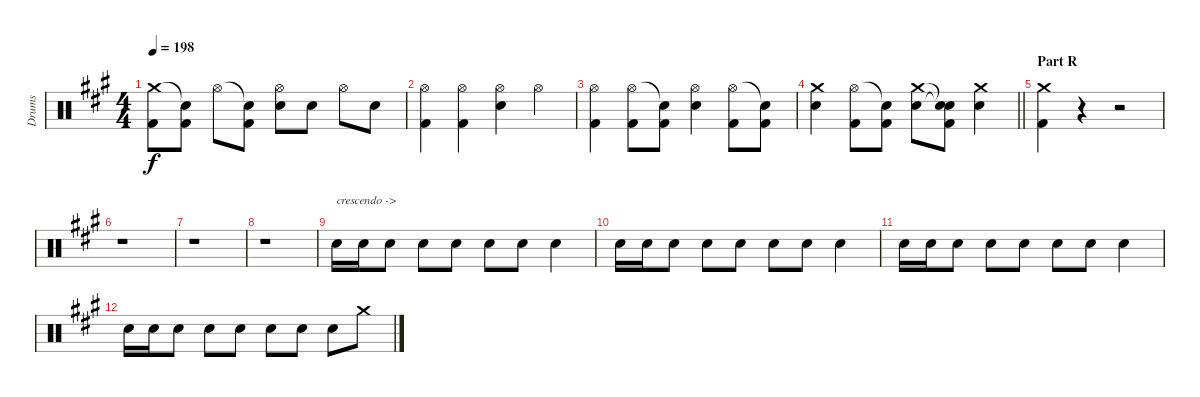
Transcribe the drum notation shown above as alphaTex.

\track ("Drums" "Drums") {instrument percussion}
\staff {score}
\articulation defaults
\ts (4 4)
\tempo 198
\clef neutral
\ks a
("Crash medium (hit)" "Kick (hit) 2").8{dy f} ("Snare (hit)"{t} "Kick (hit) 2").8 "Hi-Hat (open)".8 ("Snare (hit)"{t} "Kick (hit) 2").8 ("Hi-Hat (open)" "Electric Snare (hit)").8 "Electric Snare (hit)".8 "Hi-Hat (open)".8 "Electric Snare (hit)".8 |
("Hi-Hat (open)" "Kick (hit) 2").4 ("Hi-Hat (open)" "Kick (hit) 2").4 ("Hi-Hat (open)" "Electric Snare (hit)").4 "Hi-Hat (open)".4 |
("Hi-Hat (open)" "Kick (hit) 2").4 ("Hi-Hat (open)" "Kick (hit) 2").8 ("Snare (hit)"{t} "Kick (hit) 2").8 ("Hi-Hat (open)" "Electric Snare (hit)").4 ("Hi-Hat (open)" "Kick (hit) 2").8 ("Snare (hit)"{t} "Kick (hit) 2").8 |
\barLineRight lightlight
("Crash medium (hit)" "Electric Snare (hit)").4 ("Hi-Hat (open)" "Kick (hit) 2").8 ("Snare (hit)"{t} "Kick (hit) 2").8 ("Crash medium (hit)" "Electric Snare (hit)").8 ("Snare (hit)"{t} "Snare (hit)"{t} "Kick (hit) 2").8 ("Crash medium (hit)" "Electric Snare (hit)").4 |
\section ("" "Part R")
("Crash medium (hit)" "Kick (hit) 2").4 r.4 r.2 |
r.1 |
r.1 |
r.1 |
"Electric Snare (hit)".16{txt "crescendo ->"} "Electric Snare (hit)".16 "Electric Snare (hit)".8 "Electric Snare (hit)".8 "Electric Snare (hit)".8 "Electric Snare (hit)".8 "Electric Snare (hit)".8 "Electric Snare (hit)".4 |
"Electric Snare (hit)".16 "Electric Snare (hit)".16 "Electric Snare (hit)".8 "Electric Snare (hit)".8 "Electric Snare (hit)".8 "Electric Snare (hit)".8 "Electric Snare (hit)".8 "Electric Snare (hit)".4 |
"Electric Snare (hit)".16 "Electric Snare (hit)".16 "Electric Snare (hit)".8 "Electric Snare (hit)".8 "Electric Snare (hit)".8 "Electric Snare (hit)".8 "Electric Snare (hit)".8 "Electric Snare (hit)".4 |
"Electric Snare (hit)".16 "Electric Snare (hit)".16 "Electric Snare (hit)".8 "Electric Snare (hit)".8 "Electric Snare (hit)".8 "Electric Snare (hit)".8 "Electric Snare (hit)".8 "Electric Snare (hit)".8 "Crash medium (hit)".8
